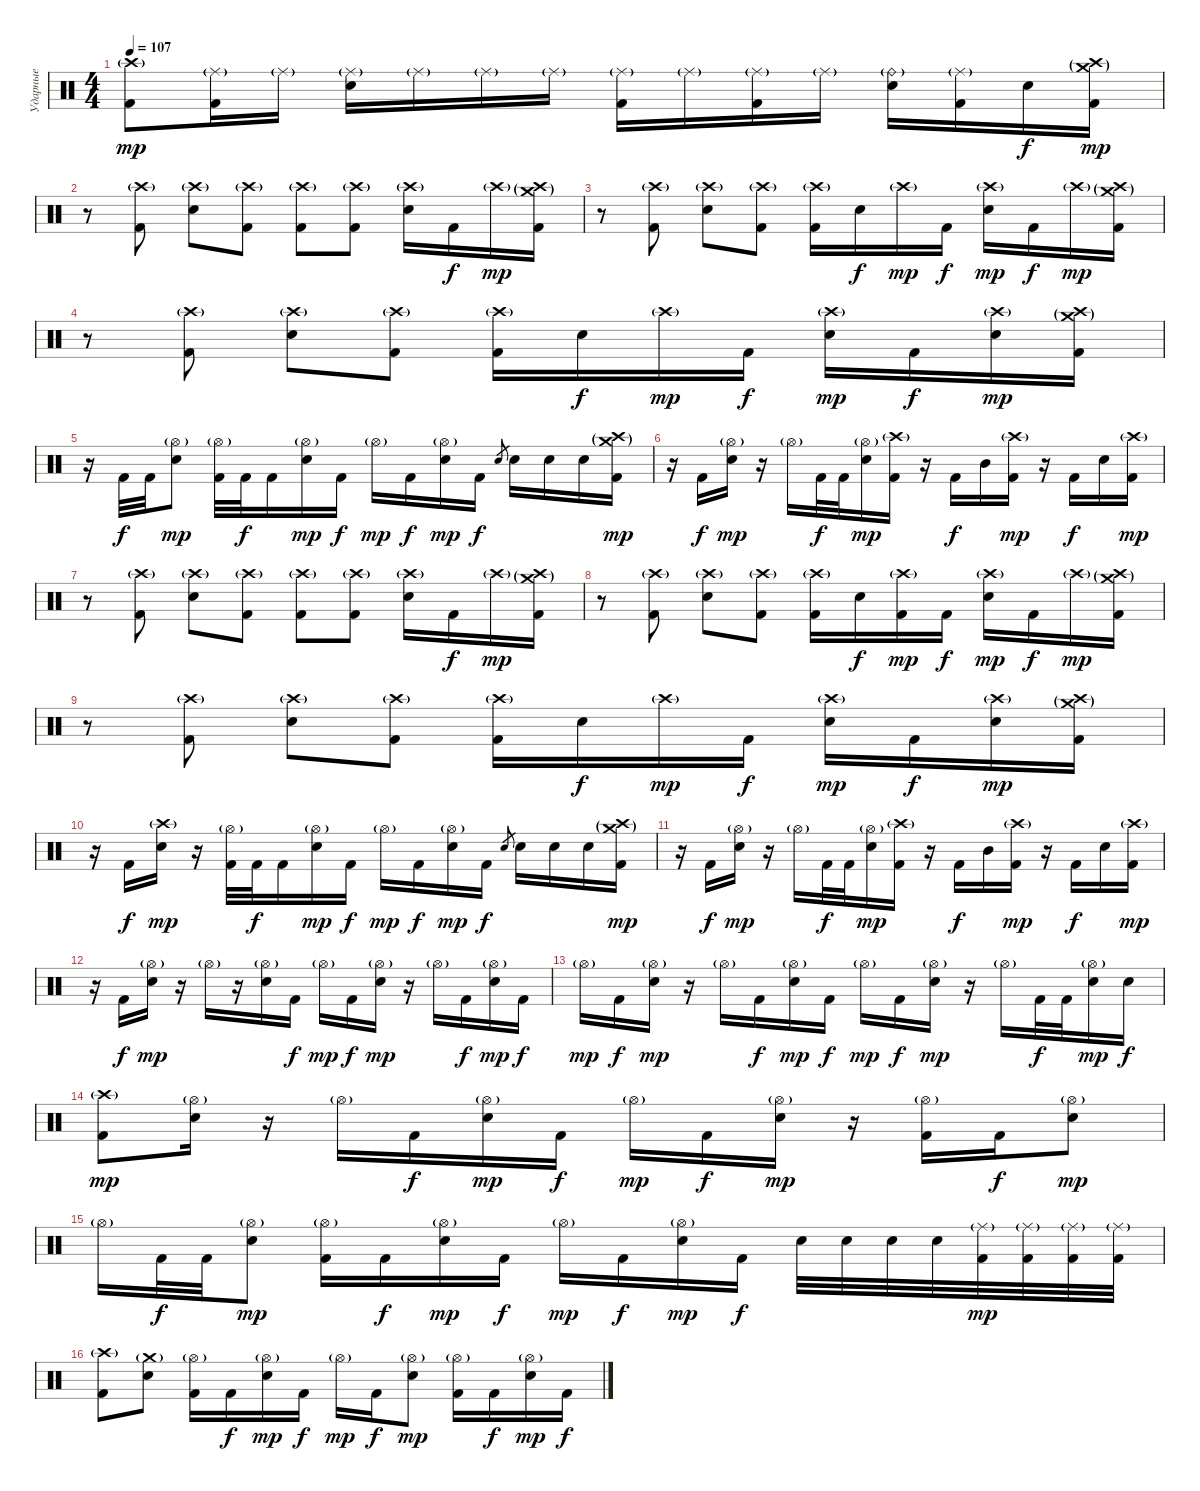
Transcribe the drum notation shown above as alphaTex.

\track ("Ударные" "Ударные") {instrument percussion}
\staff {score}
\articulation defaults
\ts (4 4)
\tempo 107
\clef neutral
\ks c
("Crash high (hit)"{g} "Kick (hit) 2").8{dy mp} ("Ride (middle)"{g} "Kick (hit) 2").16 "Ride (middle)"{g}.16 ("Ride (middle)"{g} "Electric Snare (hit)").16 "Ride (middle)"{g}.16 "Ride (middle)"{g}.16 "Ride (middle)"{g}.16 ("Ride (middle)"{g} "Kick (hit) 2").16 "Ride (middle)"{g}.16 ("Ride (middle)"{g} "Kick (hit) 2").16 "Ride (middle)"{g}.16 ("Ride (bell)"{g} "Electric Snare (hit)").16 ("Ride (middle)"{g} "Kick (hit) 2").16 "Electric Snare (hit)".16{dy f} ("Crash high (hit)"{g} "Crash medium (hit)"{g} "Kick (hit) 2").16{dy mp} |
r.8 ("Crash high (hit)"{g} "Kick (hit) 2").8 ("Crash high (hit)"{g} "Electric Snare (hit)").8 ("Crash high (hit)"{g} "Kick (hit) 2").8 ("Crash high (hit)"{g} "Kick (hit) 2").8 ("Crash high (hit)"{g} "Kick (hit) 2").8 ("Crash high (hit)"{g} "Electric Snare (hit)").16 "Kick (hit) 2".16{dy f} "Crash high (hit)"{g}.16{dy mp} ("Crash high (hit)"{g} "Crash medium (hit)"{g} "Kick (hit) 2").16 |
r.8 ("Crash high (hit)"{g} "Kick (hit) 2").8 ("Crash high (hit)"{g} "Electric Snare (hit)").8 ("Crash high (hit)"{g} "Kick (hit) 2").8 ("Crash high (hit)"{g} "Kick (hit) 2").16 "Electric Snare (hit)".16{dy f} "Crash high (hit)"{g}.16{dy mp} "Kick (hit) 2".16{dy f} ("Crash high (hit)"{g} "Electric Snare (hit)").16{dy mp} "Kick (hit) 2".16{dy f} "Crash high (hit)"{g}.16{dy mp} ("Crash high (hit)"{g} "Crash medium (hit)"{g} "Kick (hit) 2").16 |
r.8 ("Crash high (hit)"{g} "Kick (hit) 2").8 ("Crash high (hit)"{g} "Electric Snare (hit)").8 ("Crash high (hit)"{g} "Kick (hit) 2").8 ("Crash high (hit)"{g} "Kick (hit) 2").16 "Electric Snare (hit)".16{dy f} "Crash high (hit)"{g}.16{dy mp} "Kick (hit) 2".16{dy f} ("Crash high (hit)"{g} "Electric Snare (hit)").16{dy mp} "Kick (hit) 2".16{dy f} ("Crash high (hit)"{g} "Electric Snare (hit)").16{dy mp} ("Crash medium (hit)"{g} "Crash high (hit)"{g} "Kick (hit) 2").16 |
r.16 "Kick (hit) 2".32{dy f} "Kick (hit) 2".32 ("Hi-Hat (open)"{g} "Electric Snare (hit)").8{dy mp} ("Hi-Hat (open)"{g} "Kick (hit) 2").32 "Kick (hit) 2".32{dy f} "Kick (hit) 2".16 ("Hi-Hat (open)"{g} "Electric Snare (hit)").16{dy mp} "Kick (hit) 2".16{dy f} "Hi-Hat (open)"{g}.16{dy mp} "Kick (hit) 2".16{dy f} ("Hi-Hat (open)"{g} "Electric Snare (hit)").16{dy mp} "Kick (hit) 2".16{dy f} "Electric Snare (hit)".8{gr} "Electric Snare (hit)".16 "Electric Snare (hit)".16 "Electric Snare (hit)".16 ("Crash medium (hit)"{g} "Crash high (hit)"{g} "Kick (hit) 2").16{dy mp} |
r.16 "Kick (hit) 2".16{dy f} ("Hi-Hat (open)"{g} "Electric Snare (hit)").16{dy mp} r.16 "Hi-Hat (open)"{g}.16 "Kick (hit) 2".32{dy f} "Kick (hit) 2".32 ("Hi-Hat (open)"{g} "Electric Snare (hit)").16{dy mp} ("Crash high (hit)"{g} "Kick (hit) 2").16 r.16 "Kick (hit) 2".16{dy f} "Mid Tom (hit)".16 ("Crash high (hit)"{g} "Kick (hit) 2").16{dy mp} r.16 "Kick (hit) 2".16{dy f} "Electric Snare (hit)".16 ("Crash high (hit)"{g} "Kick (hit) 2").16{dy mp} |
r.8 ("Crash high (hit)"{g} "Kick (hit) 2").8 ("Crash high (hit)"{g} "Electric Snare (hit)").8 ("Crash high (hit)"{g} "Kick (hit) 2").8 ("Crash high (hit)"{g} "Kick (hit) 2").8 ("Crash high (hit)"{g} "Kick (hit) 2").8 ("Crash high (hit)"{g} "Electric Snare (hit)").16 "Kick (hit) 2".16{dy f} "Crash high (hit)"{g}.16{dy mp} ("Crash high (hit)"{g} "Crash medium (hit)"{g} "Kick (hit) 2").16 |
r.8 ("Crash high (hit)"{g} "Kick (hit) 2").8 ("Crash high (hit)"{g} "Electric Snare (hit)").8 ("Crash high (hit)"{g} "Kick (hit) 2").8 ("Crash high (hit)"{g} "Kick (hit) 2").16 "Electric Snare (hit)".16{dy f} ("Crash high (hit)"{g} "Kick (hit) 2").16{dy mp} "Kick (hit) 2".16{dy f} ("Crash high (hit)"{g} "Electric Snare (hit)").16{dy mp} "Kick (hit) 2".16{dy f} "Crash high (hit)"{g}.16{dy mp} ("Crash high (hit)"{g} "Crash medium (hit)"{g} "Kick (hit) 2").16 |
r.8 ("Crash high (hit)"{g} "Kick (hit) 2").8 ("Crash high (hit)"{g} "Electric Snare (hit)").8 ("Crash high (hit)"{g} "Kick (hit) 2").8 ("Crash high (hit)"{g} "Kick (hit) 2").16 "Electric Snare (hit)".16{dy f} "Crash high (hit)"{g}.16{dy mp} "Kick (hit) 2".16{dy f} ("Crash high (hit)"{g} "Electric Snare (hit)").16{dy mp} "Kick (hit) 2".16{dy f} ("Crash high (hit)"{g} "Electric Snare (hit)").16{dy mp} ("Crash high (hit)"{g} "Crash medium (hit)"{g} "Kick (hit) 2").16 |
r.16 "Kick (hit) 2".16{dy f} ("Crash high (hit)"{g} "Electric Snare (hit)").16{dy mp} r.16 ("Hi-Hat (open)"{g} "Kick (hit) 2").32 "Kick (hit) 2".32{dy f} "Kick (hit) 2".16 ("Hi-Hat (open)"{g} "Electric Snare (hit)").16{dy mp} "Kick (hit) 2".16{dy f} "Hi-Hat (open)"{g}.16{dy mp} "Kick (hit) 2".16{dy f} ("Hi-Hat (open)"{g} "Electric Snare (hit)").16{dy mp} "Kick (hit) 2".16{dy f} "Electric Snare (hit)".8{gr} "Electric Snare (hit)".16 "Electric Snare (hit)".16 "Electric Snare (hit)".16 ("Crash high (hit)"{g} "Crash medium (hit)"{g} "Kick (hit) 2").16{dy mp} |
r.16 "Kick (hit) 2".16{dy f} ("Hi-Hat (open)"{g} "Electric Snare (hit)").16{dy mp} r.16 "Hi-Hat (open)"{g}.16 "Kick (hit) 2".32{dy f} "Kick (hit) 2".32 ("Hi-Hat (open)"{g} "Electric Snare (hit)").16{dy mp} ("Crash high (hit)"{g} "Kick (hit) 2").16 r.16 "Kick (hit) 2".16{dy f} "Mid Tom (hit)".16 ("Crash high (hit)"{g} "Kick (hit) 2").16{dy mp} r.16 "Kick (hit) 2".16{dy f} "Electric Snare (hit)".16 ("Crash high (hit)"{g} "Kick (hit) 2").16{dy mp} |
r.16 "Kick (hit) 2".16{dy f} ("Hi-Hat (open)"{g} "Electric Snare (hit)").16{dy mp} r.16 "Hi-Hat (open)"{g}.16 r.16 ("Hi-Hat (open)"{g} "Electric Snare (hit)").16 "Kick (hit) 2".16{dy f} "Hi-Hat (open)"{g}.16{dy mp} "Kick (hit) 2".16{dy f} ("Hi-Hat (open)"{g} "Electric Snare (hit)").16{dy mp} r.16 "Hi-Hat (open)"{g}.16 "Kick (hit) 2".16{dy f} ("Hi-Hat (open)"{g} "Electric Snare (hit)").16{dy mp} "Kick (hit) 2".16{dy f} |
"Hi-Hat (open)"{g}.16{dy mp} "Kick (hit) 2".16{dy f} ("Hi-Hat (open)"{g} "Electric Snare (hit)").16{dy mp} r.16 "Hi-Hat (open)"{g}.16 "Kick (hit) 2".16{dy f} ("Hi-Hat (open)"{g} "Electric Snare (hit)").16{dy mp} "Kick (hit) 2".16{dy f} "Hi-Hat (open)"{g}.16{dy mp} "Kick (hit) 2".16{dy f} ("Hi-Hat (open)"{g} "Electric Snare (hit)").16{dy mp} r.16 "Hi-Hat (open)"{g}.16 "Kick (hit) 2".32{dy f} "Kick (hit) 2".32 ("Hi-Hat (open)"{g} "Electric Snare (hit)").16{dy mp} "Electric Snare (hit)".16{dy f} |
("Crash high (hit)"{g} "Kick (hit) 2").8{dy mp} ("Hi-Hat (open)"{g} "Electric Snare (hit)").16 r.16 "Hi-Hat (open)"{g}.16 "Kick (hit) 2".16{dy f} ("Hi-Hat (open)"{g} "Electric Snare (hit)").16{dy mp} "Kick (hit) 2".16{dy f} "Hi-Hat (open)"{g}.16{dy mp} "Kick (hit) 2".16{dy f} ("Hi-Hat (open)"{g} "Electric Snare (hit)").16{dy mp} r.16 ("Hi-Hat (open)"{g} "Kick (hit) 2").16 "Kick (hit) 2".16{dy f} ("Hi-Hat (open)"{g} "Electric Snare (hit)").8{dy mp} |
"Hi-Hat (open)"{g}.16 "Kick (hit) 2".32{dy f} "Kick (hit) 2".32 ("Hi-Hat (open)"{g} "Electric Snare (hit)").8{dy mp} ("Hi-Hat (open)"{g} "Kick (hit) 2").16 "Kick (hit) 2".16{dy f} ("Hi-Hat (open)"{g} "Electric Snare (hit)").16{dy mp} "Kick (hit) 2".16{dy f} "Hi-Hat (open)"{g}.16{dy mp} "Kick (hit) 2".16{dy f} ("Hi-Hat (open)"{g} "Electric Snare (hit)").16{dy mp} "Kick (hit) 2".16{dy f} "Electric Snare (hit)".32 "Electric Snare (hit)".32 "Electric Snare (hit)".32 "Electric Snare (hit)".32 ("Ride (middle)"{g} "Kick (hit) 2").32{dy mp} ("Ride (middle)"{g} "Kick (hit) 2").32 ("Ride (middle)"{g} "Kick (hit) 2").32 ("Ride (middle)"{g} "Kick (hit) 2").32 |
("Crash high (hit)"{g} "Kick (hit) 2").8 ("Crash medium (hit)"{g} "Electric Snare (hit)").8 ("Hi-Hat (open)"{g} "Kick (hit) 2").16 "Kick (hit) 2".16{dy f} ("Hi-Hat (open)"{g} "Electric Snare (hit)").16{dy mp} "Kick (hit) 2".16{dy f} "Hi-Hat (open)"{g}.16{dy mp} "Kick (hit) 2".16{dy f} ("Hi-Hat (open)"{g} "Electric Snare (hit)").8{dy mp} ("Hi-Hat (open)"{g} "Kick (hit) 2").16 "Kick (hit) 2".16{dy f} ("Hi-Hat (open)"{g} "Electric Snare (hit)").16{dy mp} "Kick (hit) 2".16{dy f}
